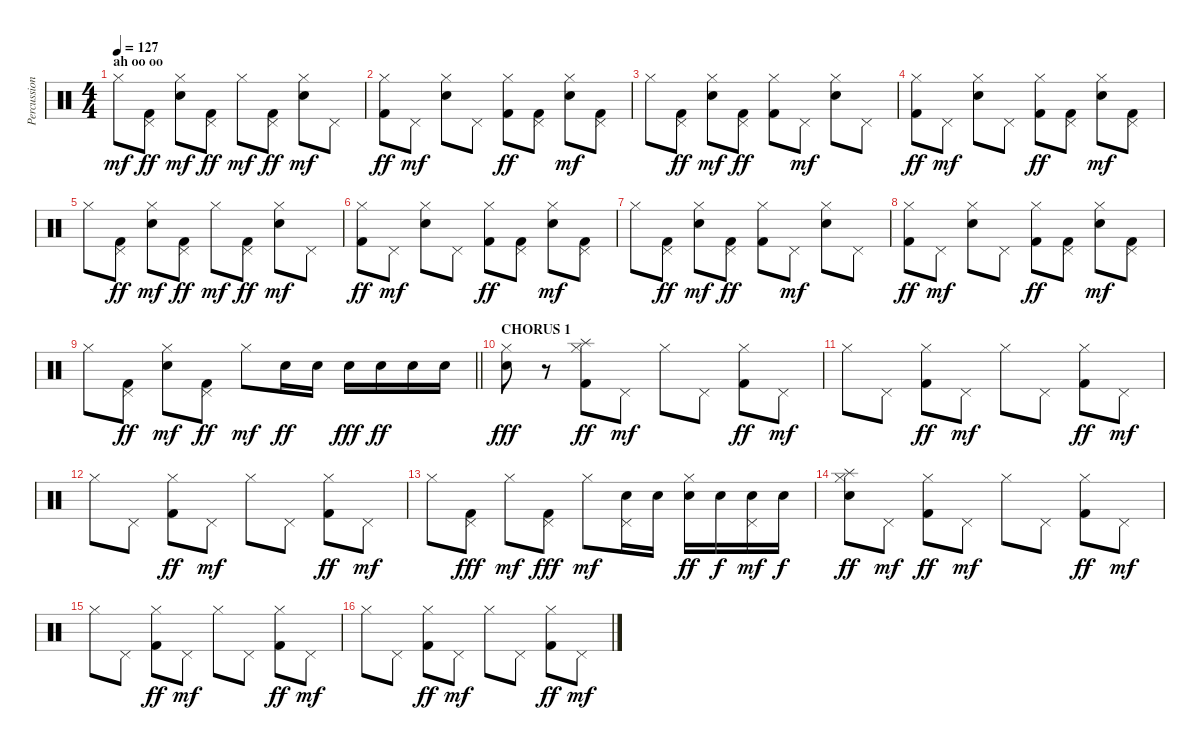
\track ("Percussion" "Percussion") {instrument percussion}
\staff {score}
\articulation defaults
\ts (4 4)
\section ("" "ah oo oo")
\tempo 127
\clef neutral
\ks c "Hi-Hat (closed)".8{dy mf}
("Pedal Hi-Hat (hit)" "Kick (hit) 2").8{dy ff} ("Hi-Hat (closed)" "Snare (hit) 2").8{dy mf} ("Pedal Hi-Hat (hit)" "Kick (hit) 2").8{dy ff} "Hi-Hat (closed)".8{dy mf} ("Pedal Hi-Hat (hit)" "Kick (hit) 2").8{dy ff} ("Hi-Hat (closed)" "Snare (hit) 2").8{dy mf} "Pedal Hi-Hat (hit)".8 |
("Hi-Hat (closed)" "Kick (hit) 2").8{dy ff} "Pedal Hi-Hat (hit)".8{dy mf} ("Hi-Hat (closed)" "Snare (hit) 2").8 "Pedal Hi-Hat (hit)".8 ("Hi-Hat (closed)" "Kick (hit) 2").8{dy ff} ("Pedal Hi-Hat (hit)" "Kick (hit) 2").8 ("Hi-Hat (closed)" "Snare (hit) 2").8{dy mf} ("Pedal Hi-Hat (hit)" "Kick (hit) 2").8 |
"Hi-Hat (closed)".8 ("Pedal Hi-Hat (hit)" "Kick (hit) 2").8{dy ff} ("Hi-Hat (closed)" "Snare (hit) 2").8{dy mf} ("Pedal Hi-Hat (hit)" "Kick (hit) 2").8{dy ff} ("Hi-Hat (closed)" "Kick (hit) 2").8 "Pedal Hi-Hat (hit)".8{dy mf} ("Hi-Hat (closed)" "Snare (hit) 2").8 "Pedal Hi-Hat (hit)".8 |
("Hi-Hat (closed)" "Kick (hit) 2").8{dy ff} "Pedal Hi-Hat (hit)".8{dy mf} ("Hi-Hat (closed)" "Snare (hit) 2").8 "Pedal Hi-Hat (hit)".8 ("Hi-Hat (closed)" "Kick (hit) 2").8{dy ff} ("Pedal Hi-Hat (hit)" "Kick (hit) 2").8 ("Hi-Hat (closed)" "Snare (hit) 2").8{dy mf} ("Pedal Hi-Hat (hit)" "Kick (hit) 2").8 |
"Hi-Hat (closed)".8 ("Pedal Hi-Hat (hit)" "Kick (hit) 2").8{dy ff} ("Hi-Hat (closed)" "Snare (hit) 2").8{dy mf} ("Pedal Hi-Hat (hit)" "Kick (hit) 2").8{dy ff} "Hi-Hat (closed)".8{dy mf} ("Pedal Hi-Hat (hit)" "Kick (hit) 2").8{dy ff} ("Hi-Hat (closed)" "Snare (hit) 2").8{dy mf} "Pedal Hi-Hat (hit)".8 |
("Hi-Hat (closed)" "Kick (hit) 2").8{dy ff} "Pedal Hi-Hat (hit)".8{dy mf} ("Hi-Hat (closed)" "Snare (hit) 2").8 "Pedal Hi-Hat (hit)".8 ("Hi-Hat (closed)" "Kick (hit) 2").8{dy ff} ("Pedal Hi-Hat (hit)" "Kick (hit) 2").8 ("Hi-Hat (closed)" "Snare (hit) 2").8{dy mf} ("Pedal Hi-Hat (hit)" "Kick (hit) 2").8 |
"Hi-Hat (closed)".8 ("Pedal Hi-Hat (hit)" "Kick (hit) 2").8{dy ff} ("Hi-Hat (closed)" "Snare (hit) 2").8{dy mf} ("Pedal Hi-Hat (hit)" "Kick (hit) 2").8{dy ff} ("Hi-Hat (closed)" "Kick (hit) 2").8 "Pedal Hi-Hat (hit)".8{dy mf} ("Hi-Hat (closed)" "Snare (hit) 2").8 "Pedal Hi-Hat (hit)".8 |
("Hi-Hat (closed)" "Kick (hit) 2").8{dy ff} "Pedal Hi-Hat (hit)".8{dy mf} ("Hi-Hat (closed)" "Snare (hit) 2").8 "Pedal Hi-Hat (hit)".8 ("Hi-Hat (closed)" "Kick (hit) 2").8{dy ff} ("Pedal Hi-Hat (hit)" "Kick (hit) 2").8 ("Hi-Hat (closed)" "Snare (hit) 2").8{dy mf} ("Pedal Hi-Hat (hit)" "Kick (hit) 2").8 |
\barLineRight lightlight "Hi-Hat (closed)".8
("Pedal Hi-Hat (hit)" "Kick (hit) 2").8{dy ff} ("Hi-Hat (closed)" "Snare (hit) 2").8{dy mf} ("Pedal Hi-Hat (hit)" "Kick (hit) 2").8{dy ff} "Hi-Hat (closed)".8{dy mf} "Electric Snare (hit)".16{dy ff} "Electric Snare (hit)".16 "Snare (hit) 2".16{dy fff} "Electric Snare (hit)".16{dy ff} "Electric Snare (hit)".16 "Electric Snare (hit)".16 |
\section ("" "CHORUS 1")
("Hi-Hat (closed)" "Snare (hit) 2").8{dy fff} r.8 ("Hi-Hat (closed)" "Splash (hit)" "Kick (hit) 2").8{dy ff} "Pedal Hi-Hat (hit)".8{dy mf} "Hi-Hat (closed)".8 "Pedal Hi-Hat (hit)".8 ("Hi-Hat (closed)" "Kick (hit) 2").8{dy ff} "Pedal Hi-Hat (hit)".8{dy mf} |
"Hi-Hat (closed)".8 "Pedal Hi-Hat (hit)".8 ("Hi-Hat (closed)" "Kick (hit) 2").8{dy ff} "Pedal Hi-Hat (hit)".8{dy mf} "Hi-Hat (closed)".8 "Pedal Hi-Hat (hit)".8 ("Hi-Hat (closed)" "Kick (hit) 2").8{dy ff} "Pedal Hi-Hat (hit)".8{dy mf} |
"Hi-Hat (closed)".8 "Pedal Hi-Hat (hit)".8 ("Hi-Hat (closed)" "Kick (hit) 2").8{dy ff} "Pedal Hi-Hat (hit)".8{dy mf} "Hi-Hat (closed)".8 "Pedal Hi-Hat (hit)".8 ("Hi-Hat (closed)" "Kick (hit) 2").8{dy ff} "Pedal Hi-Hat (hit)".8{dy mf} |
"Hi-Hat (closed)".8 ("Pedal Hi-Hat (hit)" "Kick (hit) 2").8{dy fff} "Hi-Hat (closed)".8{dy mf} ("Pedal Hi-Hat (hit)" "Kick (hit) 2").8{dy fff} "Hi-Hat (closed)".8{dy mf} ("Pedal Hi-Hat (hit)" "Snare (hit) 2").16 "Snare (hit) 2".16 ("Hi-Hat (closed)" "Electric Snare (hit)").16{dy ff} "Snare (hit) 2".16{dy f} ("Pedal Hi-Hat (hit)" "Snare (hit) 2").16{dy mf} "Snare (hit) 2".16{dy f} |
("Hi-Hat (closed)" "Splash (hit)" "Electric Snare (hit)").8{dy ff} "Pedal Hi-Hat (hit)".8{dy mf} ("Hi-Hat (closed)" "Kick (hit) 2").8{dy ff} "Pedal Hi-Hat (hit)".8{dy mf} "Hi-Hat (closed)".8 "Pedal Hi-Hat (hit)".8 ("Hi-Hat (closed)" "Kick (hit) 2").8{dy ff} "Pedal Hi-Hat (hit)".8{dy mf} |
"Hi-Hat (closed)".8 "Pedal Hi-Hat (hit)".8 ("Hi-Hat (closed)" "Kick (hit) 2").8{dy ff} "Pedal Hi-Hat (hit)".8{dy mf} "Hi-Hat (closed)".8 "Pedal Hi-Hat (hit)".8 ("Hi-Hat (closed)" "Kick (hit) 2").8{dy ff} "Pedal Hi-Hat (hit)".8{dy mf} |
"Hi-Hat (closed)".8 "Pedal Hi-Hat (hit)".8 ("Hi-Hat (closed)" "Kick (hit) 2").8{dy ff} "Pedal Hi-Hat (hit)".8{dy mf} "Hi-Hat (closed)".8 "Pedal Hi-Hat (hit)".8 ("Hi-Hat (closed)" "Kick (hit) 2").8{dy ff} "Pedal Hi-Hat (hit)".8{dy mf}
